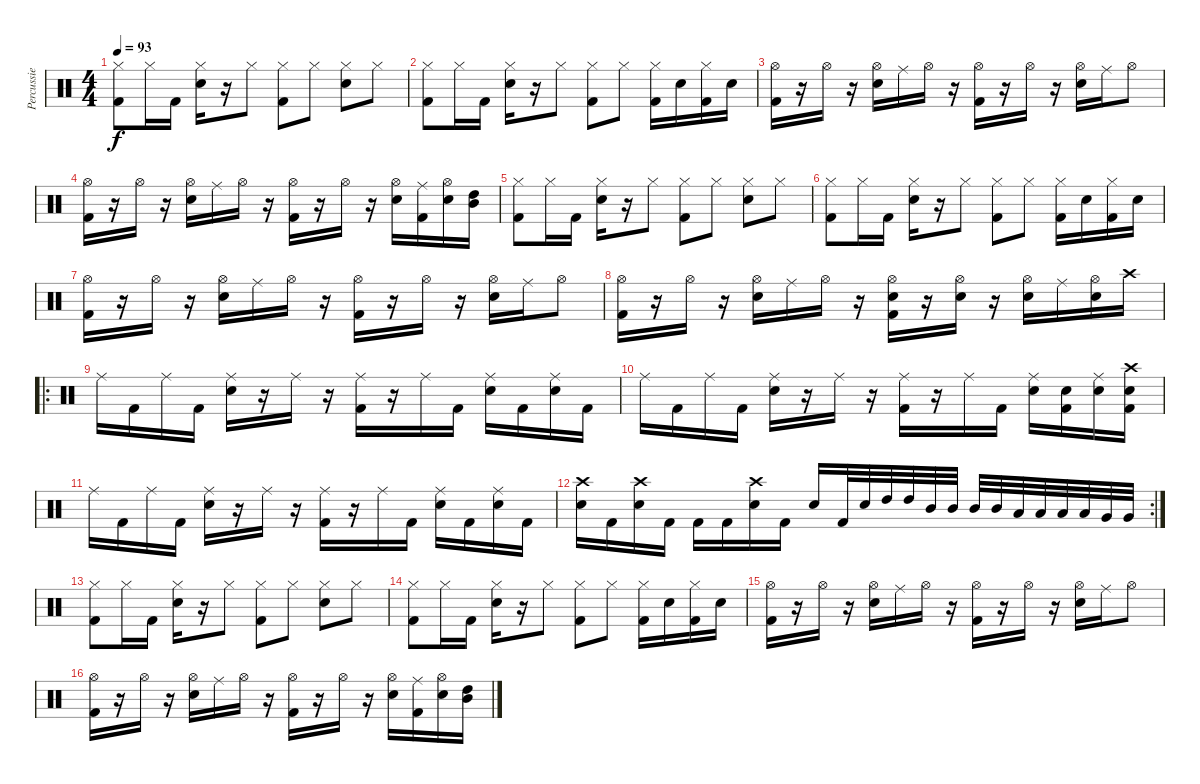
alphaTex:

\track ("Percussie" "Percussie") {instrument percussion}
\staff {score}
\articulation defaults
\ts (4 4)
\tempo 93
\clef neutral
\ks c
("Hi-Hat (closed)" "Kick (hit) 2").8{dy f} "Hi-Hat (closed)".16 "Kick (hit) 2".16 ("Hi-Hat (closed)" "Electric Snare (hit)").16 r.16 "Hi-Hat (closed)".8 ("Hi-Hat (closed)" "Kick (hit) 2").8 "Hi-Hat (closed)".8 ("Hi-Hat (closed)" "Electric Snare (hit)").8 "Hi-Hat (closed)".8 |
("Hi-Hat (closed)" "Kick (hit) 2").8 "Hi-Hat (closed)".16 "Kick (hit) 2".16 ("Hi-Hat (closed)" "Electric Snare (hit)").16 r.16 "Hi-Hat (closed)".8 ("Hi-Hat (closed)" "Kick (hit) 2").8 "Hi-Hat (closed)".8 ("Hi-Hat (closed)" "Kick (hit) 2").16 "Electric Snare (hit)".16 ("Hi-Hat (closed)" "Kick (hit) 2").16 "Electric Snare (hit)".16 |
("Hi-Hat (open)" "Kick (hit) 2").16 r.16 "Hi-Hat (open)".16 r.16 ("Hi-Hat (open)" "Electric Snare (hit)").16 "Ride (middle)".16 "Hi-Hat (open)".16 r.16 ("Hi-Hat (open)" "Kick (hit) 2").16 r.16 "Hi-Hat (open)".16 r.16 ("Hi-Hat (open)" "Electric Snare (hit)").16 "Ride (middle)".16 "Hi-Hat (open)".8 |
("Hi-Hat (open)" "Kick (hit) 2").16 r.16 "Hi-Hat (open)".16 r.16 ("Hi-Hat (open)" "Electric Snare (hit)").16 "Ride (middle)".16 "Hi-Hat (open)".16 r.16 ("Hi-Hat (open)" "Kick (hit) 2").16 r.16 "Hi-Hat (open)".16 r.16 ("Hi-Hat (open)" "Electric Snare (hit)").16 ("Ride (middle)" "Kick (hit) 2").16 ("Hi-Hat (open)" "Electric Snare (hit)").16 ("High Tom (hit)" "Mid Tom (hit)").16 |
("Hi-Hat (closed)" "Kick (hit) 2").8 "Hi-Hat (closed)".16 "Kick (hit) 2".16 ("Hi-Hat (closed)" "Electric Snare (hit)").16 r.16 "Hi-Hat (closed)".8 ("Hi-Hat (closed)" "Kick (hit) 2").8 "Hi-Hat (closed)".8 ("Hi-Hat (closed)" "Electric Snare (hit)").8 "Hi-Hat (closed)".8 |
("Hi-Hat (closed)" "Kick (hit) 2").8 "Hi-Hat (closed)".16 "Kick (hit) 2".16 ("Hi-Hat (closed)" "Electric Snare (hit)").16 r.16 "Hi-Hat (closed)".8 ("Hi-Hat (closed)" "Kick (hit) 2").8 "Hi-Hat (closed)".8 ("Hi-Hat (closed)" "Kick (hit) 2").16 "Electric Snare (hit)".16 ("Hi-Hat (closed)" "Kick (hit) 2").16 "Electric Snare (hit)".16 |
("Hi-Hat (open)" "Kick (hit) 2").16 r.16 "Hi-Hat (open)".16 r.16 ("Hi-Hat (open)" "Electric Snare (hit)").16 "Ride (middle)".16 "Hi-Hat (open)".16 r.16 ("Hi-Hat (open)" "Kick (hit) 2").16 r.16 "Hi-Hat (open)".16 r.16 ("Hi-Hat (open)" "Electric Snare (hit)").16 "Ride (middle)".16 "Hi-Hat (open)".8 |
("Hi-Hat (open)" "Kick (hit) 2").16 r.16 "Hi-Hat (open)".16 r.16 ("Hi-Hat (open)" "Electric Snare (hit)").16 "Ride (middle)".16 "Hi-Hat (open)".16 r.16 ("Hi-Hat (open)" "Electric Snare (hit)" "Kick (hit) 2").16 r.16 ("Hi-Hat (open)" "Electric Snare (hit)").16 r.16 ("Hi-Hat (open)" "Electric Snare (hit)").16 "Ride (middle)".16 ("Hi-Hat (open)" "Electric Snare (hit)").16 "Crash high (hit)".16 |
\ro "Ride (middle)".16 "Kick (hit) 2".16 "Ride (middle)".16 "Kick (hit) 2".16
("Ride (middle)" "Electric Snare (hit)").16 r.16 "Ride (middle)".16 r.16 ("Ride (middle)" "Kick (hit) 2").16 r.16 "Ride (middle)".16 "Kick (hit) 2".16 ("Ride (middle)" "Electric Snare (hit)").16 "Kick (hit) 2".16 ("Ride (middle)" "Electric Snare (hit)").16 "Kick (hit) 2".16 |
"Ride (middle)".16 "Kick (hit) 2".16 "Ride (middle)".16 "Kick (hit) 2".16 ("Ride (middle)" "Electric Snare (hit)").16 r.16 "Ride (middle)".16 r.16 ("Ride (middle)" "Kick (hit) 2").16 r.16 "Ride (middle)".16 "Kick (hit) 2".16 ("Ride (middle)" "Electric Snare (hit)").16 ("Electric Snare (hit)" "Kick (hit) 2").16 ("Ride (middle)" "Electric Snare (hit)").16 ("Crash high (hit)" "Electric Snare (hit)" "Kick (hit) 2").16 |
"Ride (middle)".16 "Kick (hit) 2".16 "Ride (middle)".16 "Kick (hit) 2".16 ("Ride (middle)" "Electric Snare (hit)").16 r.16 "Ride (middle)".16 r.16 ("Ride (middle)" "Kick (hit) 2").16 r.16 "Ride (middle)".16 "Kick (hit) 2".16 ("Ride (middle)" "Electric Snare (hit)").16 "Kick (hit) 2".16 ("Ride (middle)" "Electric Snare (hit)").16 "Kick (hit) 2".16 |
\rc 2
("Crash high (hit)" "Electric Snare (hit)").16 "Kick (hit) 2".16 ("Crash high (hit)" "Electric Snare (hit)").16 "Kick (hit) 2".16 "Kick (hit) 2".16 "Kick (hit) 2".16 ("Crash high (hit)" "Electric Snare (hit)").16 "Kick (hit) 2".16 "Electric Snare (hit)".16 "Kick (hit) 2".32 "Electric Snare (hit)".32 "High Tom (hit)".32 "High Tom (hit)".32 "Mid Tom (hit)".32 "Mid Tom (hit)".32 "Mid Tom (hit)".32 "Mid Tom (hit)".32 "Low Tom (hit)".32 "Low Tom (hit)".32 "Low Tom (hit)".32 "Low Tom (hit)".32 "Very Low Tom (hit)".32 "Very Low Tom (hit)".32 |
("Hi-Hat (closed)" "Kick (hit) 2").8 "Hi-Hat (closed)".16 "Kick (hit) 2".16 ("Hi-Hat (closed)" "Electric Snare (hit)").16 r.16 "Hi-Hat (closed)".8 ("Hi-Hat (closed)" "Kick (hit) 2").8 "Hi-Hat (closed)".8 ("Hi-Hat (closed)" "Electric Snare (hit)").8 "Hi-Hat (closed)".8 |
("Hi-Hat (closed)" "Kick (hit) 2").8 "Hi-Hat (closed)".16 "Kick (hit) 2".16 ("Hi-Hat (closed)" "Electric Snare (hit)").16 r.16 "Hi-Hat (closed)".8 ("Hi-Hat (closed)" "Kick (hit) 2").8 "Hi-Hat (closed)".8 ("Hi-Hat (closed)" "Kick (hit) 2").16 "Electric Snare (hit)".16 ("Hi-Hat (closed)" "Kick (hit) 2").16 "Electric Snare (hit)".16 |
("Hi-Hat (open)" "Kick (hit) 2").16 r.16 "Hi-Hat (open)".16 r.16 ("Hi-Hat (open)" "Electric Snare (hit)").16 "Ride (middle)".16 "Hi-Hat (open)".16 r.16 ("Hi-Hat (open)" "Kick (hit) 2").16 r.16 "Hi-Hat (open)".16 r.16 ("Hi-Hat (open)" "Electric Snare (hit)").16 "Ride (middle)".16 "Hi-Hat (open)".8 |
("Hi-Hat (open)" "Kick (hit) 2").16 r.16 "Hi-Hat (open)".16 r.16 ("Hi-Hat (open)" "Electric Snare (hit)").16 "Ride (middle)".16 "Hi-Hat (open)".16 r.16 ("Hi-Hat (open)" "Kick (hit) 2").16 r.16 "Hi-Hat (open)".16 r.16 ("Hi-Hat (open)" "Electric Snare (hit)").16 ("Ride (middle)" "Kick (hit) 2").16 ("Hi-Hat (open)" "Electric Snare (hit)").16 ("High Tom (hit)" "Mid Tom (hit)").16
